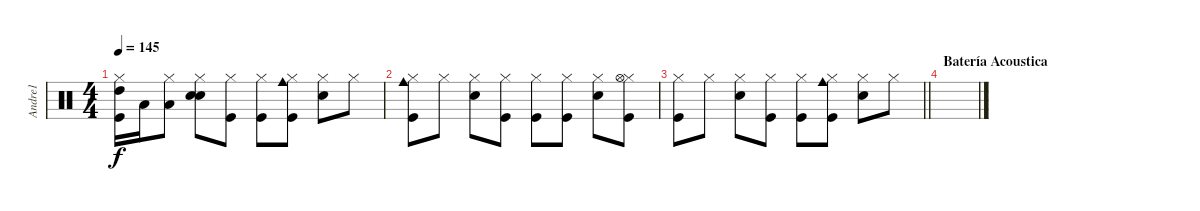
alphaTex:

\track ("Andre1" "Andre1") {instrument percussion}
\staff {score}
\articulation defaults
\ts (4 4)
\tempo 145
\clef neutral
\ks c
("Hi-Hat (closed)" "Kick (hit)" "High Tom (hit)").16{dy f} "Low Tom (hit)".16 ("Hi-Hat (closed)" "Low Floor Tom (hit)").8 ("Snare (hit) 2" "Hand Clap (hit)" "Hi-Hat (closed)").8 ("Hi-Hat (closed)" "Kick (hit)").8 ("Hi-Hat (closed)" "Kick (hit)").8 ("Kick (hit)" "Cowbell medium (hit)" "Hi-Hat (closed)").8 ("Hi-Hat (closed)" "Snare (hit) 2").8 "Hi-Hat (closed)".8 |
("Kick (hit)" "Hi-Hat (closed)" "Cowbell medium (hit)").8 "Hi-Hat (closed)".8 ("Snare (hit) 2" "Hi-Hat (closed)").8 ("Hi-Hat (closed)" "Kick (hit)").8 ("Hi-Hat (closed)" "Kick (hit)").8 ("Kick (hit)" "Hi-Hat (closed)").8 ("Hi-Hat (closed)" "Snare (hit) 2").8 ("Hi-Hat (closed)" "Kick (hit)" "Hi-Hat (open)").8 |
\barLineRight lightlight
("Kick (hit)" "Hi-Hat (closed)").8 "Hi-Hat (closed)".8 ("Snare (hit) 2" "Hi-Hat (closed)").8 ("Hi-Hat (closed)" "Kick (hit)").8 ("Hi-Hat (closed)" "Kick (hit)").8 ("Cowbell medium (hit)" "Kick (hit)" "Hi-Hat (closed)").8 ("Hi-Hat (closed)" "Snare (hit) 2").8 "Hi-Hat (closed)".8 |
\section ("" "Batería Acoustica")
